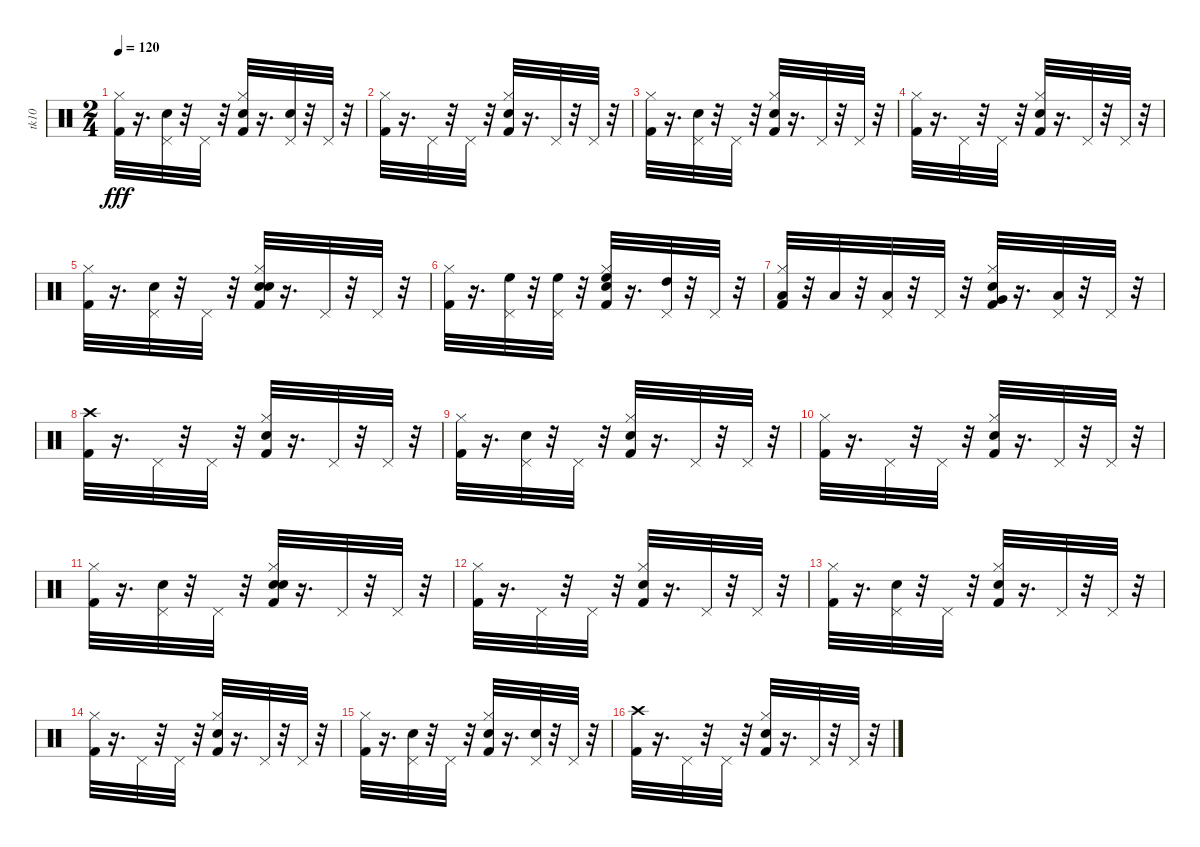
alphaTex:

\track ("tk10" "tk10") {instrument percussion}
\staff {score}
\articulation defaults
\ts (2 4)
\tempo 120
\clef neutral
\ks c
("Kick (hit) 2" "Hi-Hat (closed)").32{dy fff} r.16{d} ("Hand Clap (hit)" "Pedal Hi-Hat (hit)").32 r.32 "Pedal Hi-Hat (hit)".32 r.32 ("Snare (hit) 2" "Kick (hit) 2" "Hi-Hat (closed)").32 r.16{d} ("Hand Clap (hit)" "Pedal Hi-Hat (hit)").32 r.32 "Pedal Hi-Hat (hit)".32 r.32 |
("Kick (hit) 2" "Hi-Hat (closed)").32 r.16{d} "Pedal Hi-Hat (hit)".32 r.32 "Pedal Hi-Hat (hit)".32 r.32 ("Snare (hit) 2" "Kick (hit) 2" "Hi-Hat (closed)").32 r.16{d} "Pedal Hi-Hat (hit)".32 r.32 "Pedal Hi-Hat (hit)".32 r.32 |
("Kick (hit) 2" "Hi-Hat (closed)").32 r.16{d} ("Pedal Hi-Hat (hit)" "Hand Clap (hit)").32 r.32 "Pedal Hi-Hat (hit)".32 r.32 ("Snare (hit) 2" "Kick (hit) 2" "Hi-Hat (closed)").32 r.16{d} "Pedal Hi-Hat (hit)".32 r.32 "Pedal Hi-Hat (hit)".32 r.32 |
("Kick (hit) 2" "Hi-Hat (closed)").32 r.16{d} "Pedal Hi-Hat (hit)".32 r.32 "Pedal Hi-Hat (hit)".32 r.32 ("Snare (hit) 2" "Kick (hit) 2" "Hi-Hat (closed)").32 r.16{d} "Pedal Hi-Hat (hit)".32 r.32 "Pedal Hi-Hat (hit)".32 r.32 |
("Kick (hit) 2" "Hi-Hat (closed)").32 r.16{d} ("Hand Clap (hit)" "Pedal Hi-Hat (hit)").32 r.32 "Pedal Hi-Hat (hit)".32 r.32 ("Snare (hit) 2" "Kick (hit) 2" "Hand Clap (hit)" "Hi-Hat (closed)").32 r.16{d} "Pedal Hi-Hat (hit)".32 r.32 "Pedal Hi-Hat (hit)".32 r.32 |
("Kick (hit) 2" "Hi-Hat (closed)").32 r.16{d} ("Pedal Hi-Hat (hit)" "High Floor Tom (hit)").32 r.32 ("High Floor Tom (hit)" "Pedal Hi-Hat (hit)").32 r.32 ("Kick (hit) 2" "Snare (hit) 2" "Hi-Hat (closed)" "High Floor Tom (hit)").32 r.16{d} ("High Tom (hit)" "Pedal Hi-Hat (hit)").32 r.32 "Pedal Hi-Hat (hit)".32 r.32 |
("Kick (hit) 2" "Low Tom (hit)" "Hi-Hat (closed)").32 r.32 "Low Tom (hit)".32 r.32 ("Low Tom (hit)" "Pedal Hi-Hat (hit)").32 r.32 "Pedal Hi-Hat (hit)".32 r.32 ("Kick (hit) 2" "Snare (hit) 2" "Very Low Tom (hit)" "Hi-Hat (closed)").32 r.16{d} ("Low Floor Tom (hit)" "Pedal Hi-Hat (hit)").32 r.32 "Pedal Hi-Hat (hit)".32 r.32 |
("Kick (hit) 2" "Crash high (hit)").32 r.16{d} "Pedal Hi-Hat (hit)".32 r.32 "Pedal Hi-Hat (hit)".32 r.32 ("Snare (hit) 2" "Kick (hit) 2" "Hi-Hat (closed)").32 r.16{d} "Pedal Hi-Hat (hit)".32 r.32 "Pedal Hi-Hat (hit)".32 r.32 |
("Kick (hit) 2" "Hi-Hat (closed)").32 r.16{d} ("Pedal Hi-Hat (hit)" "Hand Clap (hit)").32 r.32 "Pedal Hi-Hat (hit)".32 r.32 ("Snare (hit) 2" "Kick (hit) 2" "Hi-Hat (closed)").32 r.16{d} "Pedal Hi-Hat (hit)".32 r.32 "Pedal Hi-Hat (hit)".32 r.32 |
("Kick (hit) 2" "Hi-Hat (closed)").32 r.16{d} "Pedal Hi-Hat (hit)".32 r.32 "Pedal Hi-Hat (hit)".32 r.32 ("Snare (hit) 2" "Kick (hit) 2" "Hi-Hat (closed)").32 r.16{d} "Pedal Hi-Hat (hit)".32 r.32 "Pedal Hi-Hat (hit)".32 r.32 |
("Kick (hit) 2" "Hi-Hat (closed)").32 r.16{d} ("Hand Clap (hit)" "Pedal Hi-Hat (hit)").32 r.32 "Pedal Hi-Hat (hit)".32 r.32 ("Snare (hit) 2" "Kick (hit) 2" "Hand Clap (hit)" "Hi-Hat (closed)").32 r.16{d} "Pedal Hi-Hat (hit)".32 r.32 "Pedal Hi-Hat (hit)".32 r.32 |
("Kick (hit) 2" "Hi-Hat (closed)").32 r.16{d} "Pedal Hi-Hat (hit)".32 r.32 "Pedal Hi-Hat (hit)".32 r.32 ("Kick (hit) 2" "Snare (hit) 2" "Hi-Hat (closed)").32 r.16{d} "Pedal Hi-Hat (hit)".32 r.32 "Pedal Hi-Hat (hit)".32 r.32 |
("Kick (hit) 2" "Hi-Hat (closed)").32 r.16{d} ("Hand Clap (hit)" "Pedal Hi-Hat (hit)").32 r.32 "Pedal Hi-Hat (hit)".32 r.32 ("Kick (hit) 2" "Snare (hit) 2" "Hi-Hat (closed)").32 r.16{d} "Pedal Hi-Hat (hit)".32 r.32 "Pedal Hi-Hat (hit)".32 r.32 |
("Kick (hit) 2" "Hi-Hat (closed)").32 r.16{d} "Pedal Hi-Hat (hit)".32 r.32 "Pedal Hi-Hat (hit)".32 r.32 ("Snare (hit) 2" "Kick (hit) 2" "Hi-Hat (closed)").32 r.16{d} "Pedal Hi-Hat (hit)".32 r.32 "Pedal Hi-Hat (hit)".32 r.32 |
("Kick (hit) 2" "Hi-Hat (closed)").32 r.16{d} ("Hand Clap (hit)" "Pedal Hi-Hat (hit)").32 r.32 "Pedal Hi-Hat (hit)".32 r.32 ("Snare (hit) 2" "Kick (hit) 2" "Hi-Hat (closed)").32 r.16{d} ("Hand Clap (hit)" "Pedal Hi-Hat (hit)").32 r.32 "Pedal Hi-Hat (hit)".32 r.32 |
("Kick (hit) 2" "Crash high (hit)").32 r.16{d} "Pedal Hi-Hat (hit)".32 r.32 "Pedal Hi-Hat (hit)".32 r.32 ("Snare (hit) 2" "Kick (hit) 2" "Hi-Hat (closed)").32 r.16{d} "Pedal Hi-Hat (hit)".32 r.32 "Pedal Hi-Hat (hit)".32 r.32
